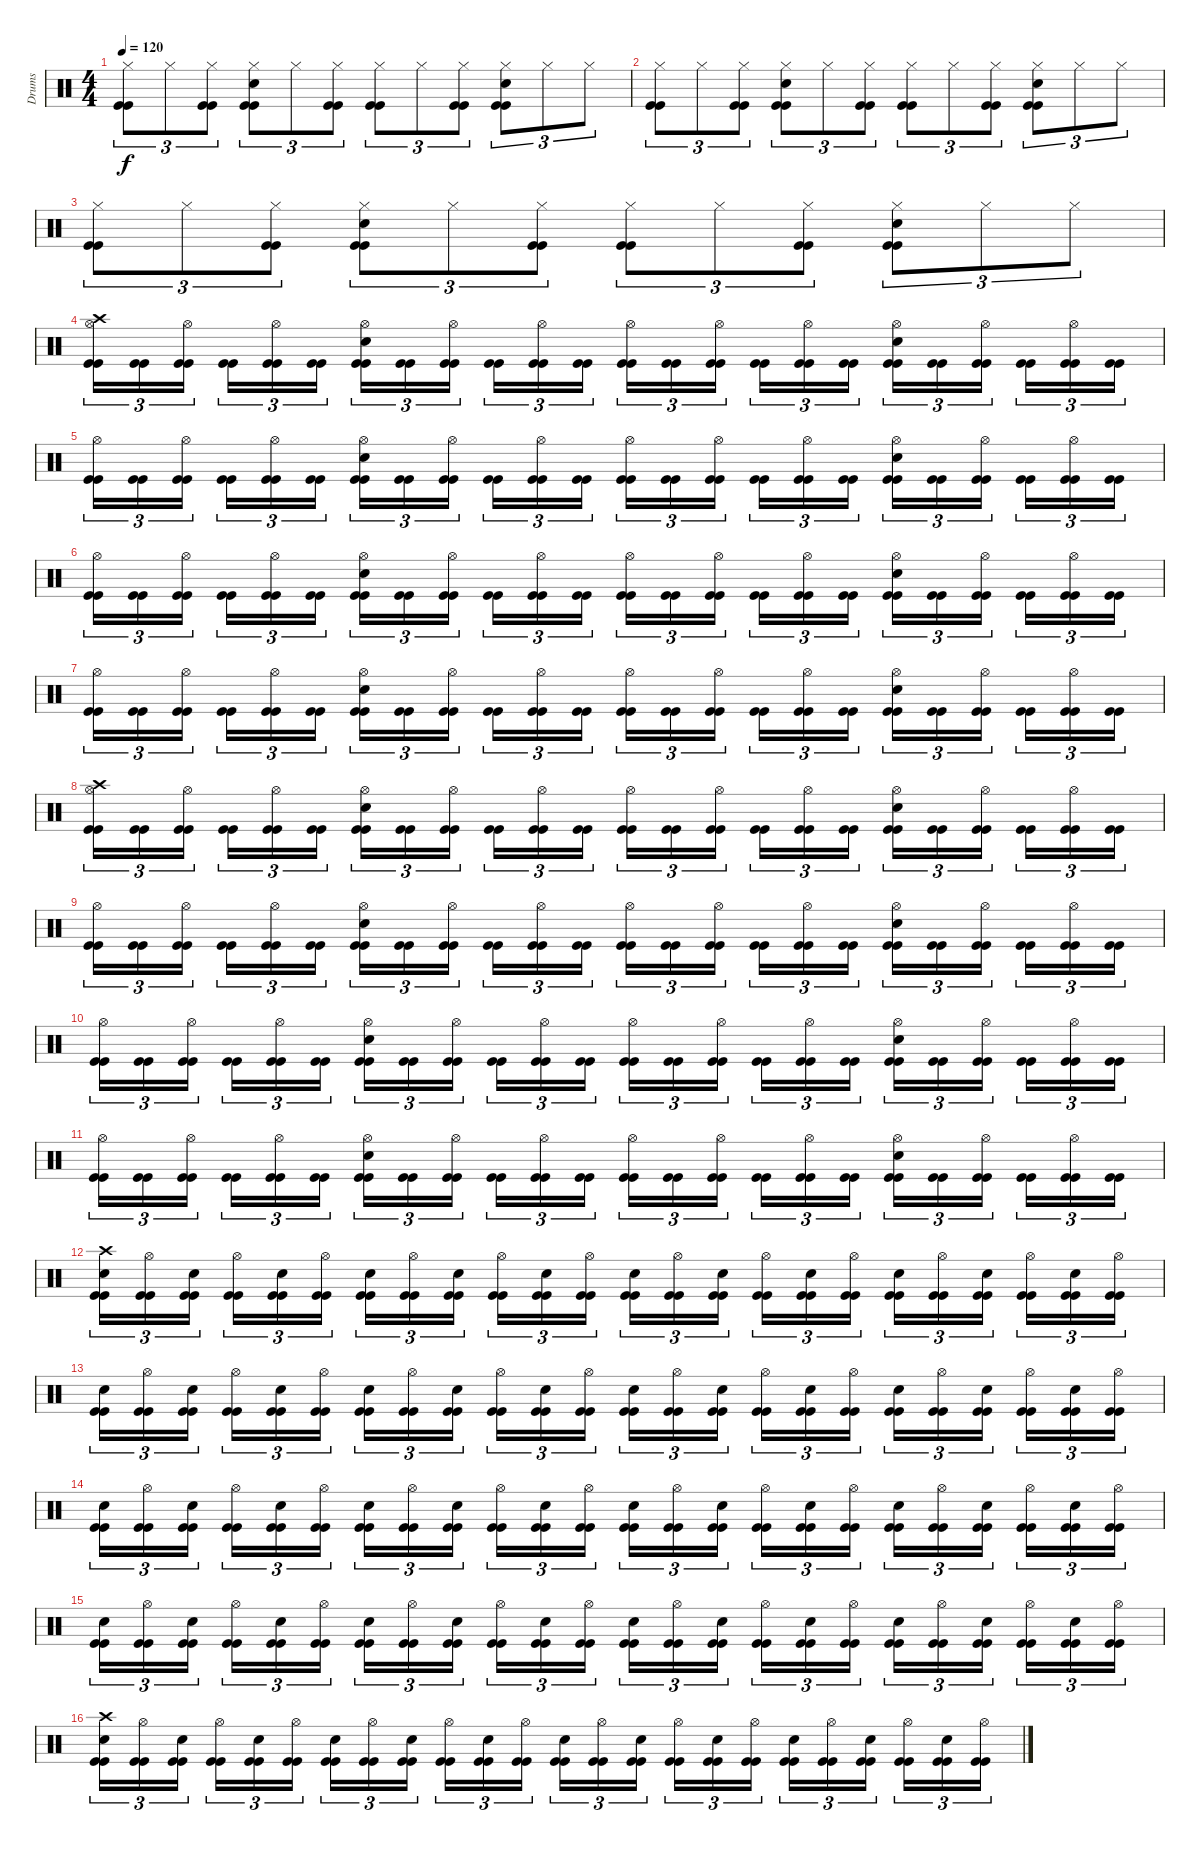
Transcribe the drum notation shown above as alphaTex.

\track ("Drums" "Drums") {instrument percussion}
\staff {score}
\articulation defaults
\ts (4 4)
\tempo 120
\clef neutral
\ks c
("Hi-Hat (closed)" "Kick (hit)" "Kick (hit)").8{tu (3 2) dy f} "Hi-Hat (closed)".8{tu (3 2)} ("Hi-Hat (closed)" "Kick (hit)" "Kick (hit)").8{tu (3 2)} ("Snare (hit) 2" "Hi-Hat (closed)" "Kick (hit)" "Kick (hit)").8{tu (3 2)} "Hi-Hat (closed)".8{tu (3 2)} ("Hi-Hat (closed)" "Kick (hit)" "Kick (hit)").8{tu (3 2)} ("Hi-Hat (closed)" "Kick (hit)" "Kick (hit)").8{tu (3 2)} "Hi-Hat (closed)".8{tu (3 2)} ("Hi-Hat (closed)" "Kick (hit)" "Kick (hit)").8{tu (3 2)} ("Snare (hit) 2" "Hi-Hat (closed)" "Kick (hit)" "Kick (hit)").8{tu (3 2)} "Hi-Hat (closed)".8{tu (3 2)} "Hi-Hat (closed)".8{tu (3 2)} |
("Hi-Hat (closed)" "Kick (hit)" "Kick (hit)").8{tu (3 2)} "Hi-Hat (closed)".8{tu (3 2)} ("Hi-Hat (closed)" "Kick (hit)" "Kick (hit)").8{tu (3 2)} ("Snare (hit) 2" "Hi-Hat (closed)" "Kick (hit)" "Kick (hit)").8{tu (3 2)} "Hi-Hat (closed)".8{tu (3 2)} ("Hi-Hat (closed)" "Kick (hit)" "Kick (hit)").8{tu (3 2)} ("Hi-Hat (closed)" "Kick (hit)" "Kick (hit)").8{tu (3 2)} "Hi-Hat (closed)".8{tu (3 2)} ("Hi-Hat (closed)" "Kick (hit)" "Kick (hit)").8{tu (3 2)} ("Snare (hit) 2" "Hi-Hat (closed)" "Kick (hit)" "Kick (hit)").8{tu (3 2)} "Hi-Hat (closed)".8{tu (3 2)} "Hi-Hat (closed)".8{tu (3 2)} |
("Hi-Hat (closed)" "Kick (hit)" "Kick (hit)").8{tu (3 2)} "Hi-Hat (closed)".8{tu (3 2)} ("Hi-Hat (closed)" "Kick (hit)" "Kick (hit)").8{tu (3 2)} ("Snare (hit) 2" "Hi-Hat (closed)" "Kick (hit)" "Kick (hit)").8{tu (3 2)} "Hi-Hat (closed)".8{tu (3 2)} ("Hi-Hat (closed)" "Kick (hit)" "Kick (hit)").8{tu (3 2)} ("Hi-Hat (closed)" "Kick (hit)" "Kick (hit)").8{tu (3 2)} "Hi-Hat (closed)".8{tu (3 2)} ("Hi-Hat (closed)" "Kick (hit)" "Kick (hit)").8{tu (3 2)} ("Snare (hit) 2" "Hi-Hat (closed)" "Kick (hit)" "Kick (hit)").8{tu (3 2)} "Hi-Hat (closed)".8{tu (3 2)} "Hi-Hat (closed)".8{tu (3 2)} |
("Crash high (hit)" "Hi-Hat (open)" "Kick (hit)" "Kick (hit)").16{tu (3 2)} ("Kick (hit)" "Kick (hit)").16{tu (3 2)} ("Hi-Hat (open)" "Kick (hit)" "Kick (hit)").16{tu (3 2)} ("Kick (hit)" "Kick (hit)").16{tu (3 2)} ("Hi-Hat (open)" "Kick (hit)" "Kick (hit)").16{tu (3 2)} ("Kick (hit)" "Kick (hit)").16{tu (3 2)} ("Snare (hit) 2" "Hi-Hat (open)" "Kick (hit)" "Kick (hit)").16{tu (3 2)} ("Kick (hit)" "Kick (hit)").16{tu (3 2)} ("Hi-Hat (open)" "Kick (hit)" "Kick (hit)").16{tu (3 2)} ("Kick (hit)" "Kick (hit)").16{tu (3 2)} ("Hi-Hat (open)" "Kick (hit)" "Kick (hit)").16{tu (3 2)} ("Kick (hit)" "Kick (hit)").16{tu (3 2)} ("Hi-Hat (open)" "Kick (hit)" "Kick (hit)").16{tu (3 2)} ("Kick (hit)" "Kick (hit)").16{tu (3 2)} ("Hi-Hat (open)" "Kick (hit)" "Kick (hit)").16{tu (3 2)} ("Kick (hit)" "Kick (hit)").16{tu (3 2)} ("Hi-Hat (open)" "Kick (hit)" "Kick (hit)").16{tu (3 2)} ("Kick (hit)" "Kick (hit)").16{tu (3 2)} ("Snare (hit) 2" "Hi-Hat (open)" "Kick (hit)" "Kick (hit)").16{tu (3 2)} ("Kick (hit)" "Kick (hit)").16{tu (3 2)} ("Hi-Hat (open)" "Kick (hit)" "Kick (hit)").16{tu (3 2)} ("Kick (hit)" "Kick (hit)").16{tu (3 2)} ("Hi-Hat (open)" "Kick (hit)" "Kick (hit)").16{tu (3 2)} ("Kick (hit)" "Kick (hit)").16{tu (3 2)} |
("Hi-Hat (open)" "Kick (hit)" "Kick (hit)").16{tu (3 2)} ("Kick (hit)" "Kick (hit)").16{tu (3 2)} ("Hi-Hat (open)" "Kick (hit)" "Kick (hit)").16{tu (3 2)} ("Kick (hit)" "Kick (hit)").16{tu (3 2)} ("Hi-Hat (open)" "Kick (hit)" "Kick (hit)").16{tu (3 2)} ("Kick (hit)" "Kick (hit)").16{tu (3 2)} ("Snare (hit) 2" "Hi-Hat (open)" "Kick (hit)" "Kick (hit)").16{tu (3 2)} ("Kick (hit)" "Kick (hit)").16{tu (3 2)} ("Hi-Hat (open)" "Kick (hit)" "Kick (hit)").16{tu (3 2)} ("Kick (hit)" "Kick (hit)").16{tu (3 2)} ("Hi-Hat (open)" "Kick (hit)" "Kick (hit)").16{tu (3 2)} ("Kick (hit)" "Kick (hit)").16{tu (3 2)} ("Hi-Hat (open)" "Kick (hit)" "Kick (hit)").16{tu (3 2)} ("Kick (hit)" "Kick (hit)").16{tu (3 2)} ("Hi-Hat (open)" "Kick (hit)" "Kick (hit)").16{tu (3 2)} ("Kick (hit)" "Kick (hit)").16{tu (3 2)} ("Hi-Hat (open)" "Kick (hit)" "Kick (hit)").16{tu (3 2)} ("Kick (hit)" "Kick (hit)").16{tu (3 2)} ("Snare (hit) 2" "Hi-Hat (open)" "Kick (hit)" "Kick (hit)").16{tu (3 2)} ("Kick (hit)" "Kick (hit)").16{tu (3 2)} ("Hi-Hat (open)" "Kick (hit)" "Kick (hit)").16{tu (3 2)} ("Kick (hit)" "Kick (hit)").16{tu (3 2)} ("Hi-Hat (open)" "Kick (hit)" "Kick (hit)").16{tu (3 2)} ("Kick (hit)" "Kick (hit)").16{tu (3 2)} |
("Hi-Hat (open)" "Kick (hit)" "Kick (hit)").16{tu (3 2)} ("Kick (hit)" "Kick (hit)").16{tu (3 2)} ("Hi-Hat (open)" "Kick (hit)" "Kick (hit)").16{tu (3 2)} ("Kick (hit)" "Kick (hit)").16{tu (3 2)} ("Hi-Hat (open)" "Kick (hit)" "Kick (hit)").16{tu (3 2)} ("Kick (hit)" "Kick (hit)").16{tu (3 2)} ("Snare (hit) 2" "Hi-Hat (open)" "Kick (hit)" "Kick (hit)").16{tu (3 2)} ("Kick (hit)" "Kick (hit)").16{tu (3 2)} ("Hi-Hat (open)" "Kick (hit)" "Kick (hit)").16{tu (3 2)} ("Kick (hit)" "Kick (hit)").16{tu (3 2)} ("Hi-Hat (open)" "Kick (hit)" "Kick (hit)").16{tu (3 2)} ("Kick (hit)" "Kick (hit)").16{tu (3 2)} ("Hi-Hat (open)" "Kick (hit)" "Kick (hit)").16{tu (3 2)} ("Kick (hit)" "Kick (hit)").16{tu (3 2)} ("Hi-Hat (open)" "Kick (hit)" "Kick (hit)").16{tu (3 2)} ("Kick (hit)" "Kick (hit)").16{tu (3 2)} ("Hi-Hat (open)" "Kick (hit)" "Kick (hit)").16{tu (3 2)} ("Kick (hit)" "Kick (hit)").16{tu (3 2)} ("Snare (hit) 2" "Hi-Hat (open)" "Kick (hit)" "Kick (hit)").16{tu (3 2)} ("Kick (hit)" "Kick (hit)").16{tu (3 2)} ("Hi-Hat (open)" "Kick (hit)" "Kick (hit)").16{tu (3 2)} ("Kick (hit)" "Kick (hit)").16{tu (3 2)} ("Hi-Hat (open)" "Kick (hit)" "Kick (hit)").16{tu (3 2)} ("Kick (hit)" "Kick (hit)").16{tu (3 2)} |
("Hi-Hat (open)" "Kick (hit)" "Kick (hit)").16{tu (3 2)} ("Kick (hit)" "Kick (hit)").16{tu (3 2)} ("Hi-Hat (open)" "Kick (hit)" "Kick (hit)").16{tu (3 2)} ("Kick (hit)" "Kick (hit)").16{tu (3 2)} ("Hi-Hat (open)" "Kick (hit)" "Kick (hit)").16{tu (3 2)} ("Kick (hit)" "Kick (hit)").16{tu (3 2)} ("Snare (hit) 2" "Hi-Hat (open)" "Kick (hit)" "Kick (hit)").16{tu (3 2)} ("Kick (hit)" "Kick (hit)").16{tu (3 2)} ("Hi-Hat (open)" "Kick (hit)" "Kick (hit)").16{tu (3 2)} ("Kick (hit)" "Kick (hit)").16{tu (3 2)} ("Hi-Hat (open)" "Kick (hit)" "Kick (hit)").16{tu (3 2)} ("Kick (hit)" "Kick (hit)").16{tu (3 2)} ("Hi-Hat (open)" "Kick (hit)" "Kick (hit)").16{tu (3 2)} ("Kick (hit)" "Kick (hit)").16{tu (3 2)} ("Hi-Hat (open)" "Kick (hit)" "Kick (hit)").16{tu (3 2)} ("Kick (hit)" "Kick (hit)").16{tu (3 2)} ("Hi-Hat (open)" "Kick (hit)" "Kick (hit)").16{tu (3 2)} ("Kick (hit)" "Kick (hit)").16{tu (3 2)} ("Snare (hit) 2" "Hi-Hat (open)" "Kick (hit)" "Kick (hit)").16{tu (3 2)} ("Kick (hit)" "Kick (hit)").16{tu (3 2)} ("Hi-Hat (open)" "Kick (hit)" "Kick (hit)").16{tu (3 2)} ("Kick (hit)" "Kick (hit)").16{tu (3 2)} ("Hi-Hat (open)" "Kick (hit)" "Kick (hit)").16{tu (3 2)} ("Kick (hit)" "Kick (hit)").16{tu (3 2)} |
("Crash high (hit)" "Hi-Hat (open)" "Kick (hit)" "Kick (hit)").16{tu (3 2)} ("Kick (hit)" "Kick (hit)").16{tu (3 2)} ("Hi-Hat (open)" "Kick (hit)" "Kick (hit)").16{tu (3 2)} ("Kick (hit)" "Kick (hit)").16{tu (3 2)} ("Hi-Hat (open)" "Kick (hit)" "Kick (hit)").16{tu (3 2)} ("Kick (hit)" "Kick (hit)").16{tu (3 2)} ("Snare (hit) 2" "Hi-Hat (open)" "Kick (hit)" "Kick (hit)").16{tu (3 2)} ("Kick (hit)" "Kick (hit)").16{tu (3 2)} ("Hi-Hat (open)" "Kick (hit)" "Kick (hit)").16{tu (3 2)} ("Kick (hit)" "Kick (hit)").16{tu (3 2)} ("Hi-Hat (open)" "Kick (hit)" "Kick (hit)").16{tu (3 2)} ("Kick (hit)" "Kick (hit)").16{tu (3 2)} ("Hi-Hat (open)" "Kick (hit)" "Kick (hit)").16{tu (3 2)} ("Kick (hit)" "Kick (hit)").16{tu (3 2)} ("Hi-Hat (open)" "Kick (hit)" "Kick (hit)").16{tu (3 2)} ("Kick (hit)" "Kick (hit)").16{tu (3 2)} ("Hi-Hat (open)" "Kick (hit)" "Kick (hit)").16{tu (3 2)} ("Kick (hit)" "Kick (hit)").16{tu (3 2)} ("Snare (hit) 2" "Hi-Hat (open)" "Kick (hit)" "Kick (hit)").16{tu (3 2)} ("Kick (hit)" "Kick (hit)").16{tu (3 2)} ("Hi-Hat (open)" "Kick (hit)" "Kick (hit)").16{tu (3 2)} ("Kick (hit)" "Kick (hit)").16{tu (3 2)} ("Hi-Hat (open)" "Kick (hit)" "Kick (hit)").16{tu (3 2)} ("Kick (hit)" "Kick (hit)").16{tu (3 2)} |
("Hi-Hat (open)" "Kick (hit)" "Kick (hit)").16{tu (3 2)} ("Kick (hit)" "Kick (hit)").16{tu (3 2)} ("Hi-Hat (open)" "Kick (hit)" "Kick (hit)").16{tu (3 2)} ("Kick (hit)" "Kick (hit)").16{tu (3 2)} ("Hi-Hat (open)" "Kick (hit)" "Kick (hit)").16{tu (3 2)} ("Kick (hit)" "Kick (hit)").16{tu (3 2)} ("Snare (hit) 2" "Hi-Hat (open)" "Kick (hit)" "Kick (hit)").16{tu (3 2)} ("Kick (hit)" "Kick (hit)").16{tu (3 2)} ("Hi-Hat (open)" "Kick (hit)" "Kick (hit)").16{tu (3 2)} ("Kick (hit)" "Kick (hit)").16{tu (3 2)} ("Hi-Hat (open)" "Kick (hit)" "Kick (hit)").16{tu (3 2)} ("Kick (hit)" "Kick (hit)").16{tu (3 2)} ("Hi-Hat (open)" "Kick (hit)" "Kick (hit)").16{tu (3 2)} ("Kick (hit)" "Kick (hit)").16{tu (3 2)} ("Hi-Hat (open)" "Kick (hit)" "Kick (hit)").16{tu (3 2)} ("Kick (hit)" "Kick (hit)").16{tu (3 2)} ("Hi-Hat (open)" "Kick (hit)" "Kick (hit)").16{tu (3 2)} ("Kick (hit)" "Kick (hit)").16{tu (3 2)} ("Snare (hit) 2" "Hi-Hat (open)" "Kick (hit)" "Kick (hit)").16{tu (3 2)} ("Kick (hit)" "Kick (hit)").16{tu (3 2)} ("Hi-Hat (open)" "Kick (hit)" "Kick (hit)").16{tu (3 2)} ("Kick (hit)" "Kick (hit)").16{tu (3 2)} ("Hi-Hat (open)" "Kick (hit)" "Kick (hit)").16{tu (3 2)} ("Kick (hit)" "Kick (hit)").16{tu (3 2)} |
("Hi-Hat (open)" "Kick (hit)" "Kick (hit)").16{tu (3 2)} ("Kick (hit)" "Kick (hit)").16{tu (3 2)} ("Hi-Hat (open)" "Kick (hit)" "Kick (hit)").16{tu (3 2)} ("Kick (hit)" "Kick (hit)").16{tu (3 2)} ("Hi-Hat (open)" "Kick (hit)" "Kick (hit)").16{tu (3 2)} ("Kick (hit)" "Kick (hit)").16{tu (3 2)} ("Snare (hit) 2" "Hi-Hat (open)" "Kick (hit)" "Kick (hit)").16{tu (3 2)} ("Kick (hit)" "Kick (hit)").16{tu (3 2)} ("Hi-Hat (open)" "Kick (hit)" "Kick (hit)").16{tu (3 2)} ("Kick (hit)" "Kick (hit)").16{tu (3 2)} ("Hi-Hat (open)" "Kick (hit)" "Kick (hit)").16{tu (3 2)} ("Kick (hit)" "Kick (hit)").16{tu (3 2)} ("Hi-Hat (open)" "Kick (hit)" "Kick (hit)").16{tu (3 2)} ("Kick (hit)" "Kick (hit)").16{tu (3 2)} ("Hi-Hat (open)" "Kick (hit)" "Kick (hit)").16{tu (3 2)} ("Kick (hit)" "Kick (hit)").16{tu (3 2)} ("Hi-Hat (open)" "Kick (hit)" "Kick (hit)").16{tu (3 2)} ("Kick (hit)" "Kick (hit)").16{tu (3 2)} ("Snare (hit) 2" "Hi-Hat (open)" "Kick (hit)" "Kick (hit)").16{tu (3 2)} ("Kick (hit)" "Kick (hit)").16{tu (3 2)} ("Hi-Hat (open)" "Kick (hit)" "Kick (hit)").16{tu (3 2)} ("Kick (hit)" "Kick (hit)").16{tu (3 2)} ("Hi-Hat (open)" "Kick (hit)" "Kick (hit)").16{tu (3 2)} ("Kick (hit)" "Kick (hit)").16{tu (3 2)} |
("Hi-Hat (open)" "Kick (hit)" "Kick (hit)").16{tu (3 2)} ("Kick (hit)" "Kick (hit)").16{tu (3 2)} ("Hi-Hat (open)" "Kick (hit)" "Kick (hit)").16{tu (3 2)} ("Kick (hit)" "Kick (hit)").16{tu (3 2)} ("Hi-Hat (open)" "Kick (hit)" "Kick (hit)").16{tu (3 2)} ("Kick (hit)" "Kick (hit)").16{tu (3 2)} ("Snare (hit) 2" "Hi-Hat (open)" "Kick (hit)" "Kick (hit)").16{tu (3 2)} ("Kick (hit)" "Kick (hit)").16{tu (3 2)} ("Hi-Hat (open)" "Kick (hit)" "Kick (hit)").16{tu (3 2)} ("Kick (hit)" "Kick (hit)").16{tu (3 2)} ("Hi-Hat (open)" "Kick (hit)" "Kick (hit)").16{tu (3 2)} ("Kick (hit)" "Kick (hit)").16{tu (3 2)} ("Hi-Hat (open)" "Kick (hit)" "Kick (hit)").16{tu (3 2)} ("Kick (hit)" "Kick (hit)").16{tu (3 2)} ("Hi-Hat (open)" "Kick (hit)" "Kick (hit)").16{tu (3 2)} ("Kick (hit)" "Kick (hit)").16{tu (3 2)} ("Hi-Hat (open)" "Kick (hit)" "Kick (hit)").16{tu (3 2)} ("Kick (hit)" "Kick (hit)").16{tu (3 2)} ("Snare (hit) 2" "Hi-Hat (open)" "Kick (hit)" "Kick (hit)").16{tu (3 2)} ("Kick (hit)" "Kick (hit)").16{tu (3 2)} ("Hi-Hat (open)" "Kick (hit)" "Kick (hit)").16{tu (3 2)} ("Kick (hit)" "Kick (hit)").16{tu (3 2)} ("Hi-Hat (open)" "Kick (hit)" "Kick (hit)").16{tu (3 2)} ("Kick (hit)" "Kick (hit)").16{tu (3 2)} |
("Crash high (hit)" "Snare (hit) 2" "Kick (hit)" "Kick (hit)").16{tu (3 2)} ("Hi-Hat (open)" "Kick (hit)" "Kick (hit)").16{tu (3 2)} ("Snare (hit) 2" "Kick (hit)" "Kick (hit)").16{tu (3 2)} ("Hi-Hat (open)" "Kick (hit)" "Kick (hit)").16{tu (3 2)} ("Snare (hit) 2" "Kick (hit)" "Kick (hit)").16{tu (3 2)} ("Hi-Hat (open)" "Kick (hit)" "Kick (hit)").16{tu (3 2)} ("Snare (hit) 2" "Kick (hit)" "Kick (hit)").16{tu (3 2)} ("Hi-Hat (open)" "Kick (hit)" "Kick (hit)").16{tu (3 2)} ("Snare (hit) 2" "Kick (hit)" "Kick (hit)").16{tu (3 2)} ("Hi-Hat (open)" "Kick (hit)" "Kick (hit)").16{tu (3 2)} ("Snare (hit) 2" "Kick (hit)" "Kick (hit)").16{tu (3 2)} ("Hi-Hat (open)" "Kick (hit)" "Kick (hit)").16{tu (3 2)} ("Snare (hit) 2" "Kick (hit)" "Kick (hit)").16{tu (3 2)} ("Hi-Hat (open)" "Kick (hit)" "Kick (hit)").16{tu (3 2)} ("Snare (hit) 2" "Kick (hit)" "Kick (hit)").16{tu (3 2)} ("Hi-Hat (open)" "Kick (hit)" "Kick (hit)").16{tu (3 2)} ("Snare (hit) 2" "Kick (hit)" "Kick (hit)").16{tu (3 2)} ("Hi-Hat (open)" "Kick (hit)" "Kick (hit)").16{tu (3 2)} ("Snare (hit) 2" "Kick (hit)" "Kick (hit)").16{tu (3 2)} ("Hi-Hat (open)" "Kick (hit)" "Kick (hit)").16{tu (3 2)} ("Snare (hit) 2" "Kick (hit)" "Kick (hit)").16{tu (3 2)} ("Hi-Hat (open)" "Kick (hit)" "Kick (hit)").16{tu (3 2)} ("Snare (hit) 2" "Kick (hit)" "Kick (hit)").16{tu (3 2)} ("Hi-Hat (open)" "Kick (hit)" "Kick (hit)").16{tu (3 2)} |
("Snare (hit) 2" "Kick (hit)" "Kick (hit)").16{tu (3 2)} ("Hi-Hat (open)" "Kick (hit)" "Kick (hit)").16{tu (3 2)} ("Snare (hit) 2" "Kick (hit)" "Kick (hit)").16{tu (3 2)} ("Hi-Hat (open)" "Kick (hit)" "Kick (hit)").16{tu (3 2)} ("Snare (hit) 2" "Kick (hit)" "Kick (hit)").16{tu (3 2)} ("Hi-Hat (open)" "Kick (hit)" "Kick (hit)").16{tu (3 2)} ("Snare (hit) 2" "Kick (hit)" "Kick (hit)").16{tu (3 2)} ("Hi-Hat (open)" "Kick (hit)" "Kick (hit)").16{tu (3 2)} ("Snare (hit) 2" "Kick (hit)" "Kick (hit)").16{tu (3 2)} ("Hi-Hat (open)" "Kick (hit)" "Kick (hit)").16{tu (3 2)} ("Snare (hit) 2" "Kick (hit)" "Kick (hit)").16{tu (3 2)} ("Hi-Hat (open)" "Kick (hit)" "Kick (hit)").16{tu (3 2)} ("Snare (hit) 2" "Kick (hit)" "Kick (hit)").16{tu (3 2)} ("Hi-Hat (open)" "Kick (hit)" "Kick (hit)").16{tu (3 2)} ("Snare (hit) 2" "Kick (hit)" "Kick (hit)").16{tu (3 2)} ("Hi-Hat (open)" "Kick (hit)" "Kick (hit)").16{tu (3 2)} ("Snare (hit) 2" "Kick (hit)" "Kick (hit)").16{tu (3 2)} ("Hi-Hat (open)" "Kick (hit)" "Kick (hit)").16{tu (3 2)} ("Snare (hit) 2" "Kick (hit)" "Kick (hit)").16{tu (3 2)} ("Hi-Hat (open)" "Kick (hit)" "Kick (hit)").16{tu (3 2)} ("Snare (hit) 2" "Kick (hit)" "Kick (hit)").16{tu (3 2)} ("Hi-Hat (open)" "Kick (hit)" "Kick (hit)").16{tu (3 2)} ("Snare (hit) 2" "Kick (hit)" "Kick (hit)").16{tu (3 2)} ("Hi-Hat (open)" "Kick (hit)" "Kick (hit)").16{tu (3 2)} |
("Snare (hit) 2" "Kick (hit)" "Kick (hit)").16{tu (3 2)} ("Hi-Hat (open)" "Kick (hit)" "Kick (hit)").16{tu (3 2)} ("Snare (hit) 2" "Kick (hit)" "Kick (hit)").16{tu (3 2)} ("Hi-Hat (open)" "Kick (hit)" "Kick (hit)").16{tu (3 2)} ("Snare (hit) 2" "Kick (hit)" "Kick (hit)").16{tu (3 2)} ("Hi-Hat (open)" "Kick (hit)" "Kick (hit)").16{tu (3 2)} ("Snare (hit) 2" "Kick (hit)" "Kick (hit)").16{tu (3 2)} ("Hi-Hat (open)" "Kick (hit)" "Kick (hit)").16{tu (3 2)} ("Snare (hit) 2" "Kick (hit)" "Kick (hit)").16{tu (3 2)} ("Hi-Hat (open)" "Kick (hit)" "Kick (hit)").16{tu (3 2)} ("Snare (hit) 2" "Kick (hit)" "Kick (hit)").16{tu (3 2)} ("Hi-Hat (open)" "Kick (hit)" "Kick (hit)").16{tu (3 2)} ("Snare (hit) 2" "Kick (hit)" "Kick (hit)").16{tu (3 2)} ("Hi-Hat (open)" "Kick (hit)" "Kick (hit)").16{tu (3 2)} ("Snare (hit) 2" "Kick (hit)" "Kick (hit)").16{tu (3 2)} ("Hi-Hat (open)" "Kick (hit)" "Kick (hit)").16{tu (3 2)} ("Snare (hit) 2" "Kick (hit)" "Kick (hit)").16{tu (3 2)} ("Hi-Hat (open)" "Kick (hit)" "Kick (hit)").16{tu (3 2)} ("Snare (hit) 2" "Kick (hit)" "Kick (hit)").16{tu (3 2)} ("Hi-Hat (open)" "Kick (hit)" "Kick (hit)").16{tu (3 2)} ("Snare (hit) 2" "Kick (hit)" "Kick (hit)").16{tu (3 2)} ("Hi-Hat (open)" "Kick (hit)" "Kick (hit)").16{tu (3 2)} ("Snare (hit) 2" "Kick (hit)" "Kick (hit)").16{tu (3 2)} ("Hi-Hat (open)" "Kick (hit)" "Kick (hit)").16{tu (3 2)} |
("Snare (hit) 2" "Kick (hit)" "Kick (hit)").16{tu (3 2)} ("Hi-Hat (open)" "Kick (hit)" "Kick (hit)").16{tu (3 2)} ("Snare (hit) 2" "Kick (hit)" "Kick (hit)").16{tu (3 2)} ("Hi-Hat (open)" "Kick (hit)" "Kick (hit)").16{tu (3 2)} ("Snare (hit) 2" "Kick (hit)" "Kick (hit)").16{tu (3 2)} ("Hi-Hat (open)" "Kick (hit)" "Kick (hit)").16{tu (3 2)} ("Snare (hit) 2" "Kick (hit)" "Kick (hit)").16{tu (3 2)} ("Hi-Hat (open)" "Kick (hit)" "Kick (hit)").16{tu (3 2)} ("Snare (hit) 2" "Kick (hit)" "Kick (hit)").16{tu (3 2)} ("Hi-Hat (open)" "Kick (hit)" "Kick (hit)").16{tu (3 2)} ("Snare (hit) 2" "Kick (hit)" "Kick (hit)").16{tu (3 2)} ("Hi-Hat (open)" "Kick (hit)" "Kick (hit)").16{tu (3 2)} ("Snare (hit) 2" "Kick (hit)" "Kick (hit)").16{tu (3 2)} ("Hi-Hat (open)" "Kick (hit)" "Kick (hit)").16{tu (3 2)} ("Snare (hit) 2" "Kick (hit)" "Kick (hit)").16{tu (3 2)} ("Hi-Hat (open)" "Kick (hit)" "Kick (hit)").16{tu (3 2)} ("Snare (hit) 2" "Kick (hit)" "Kick (hit)").16{tu (3 2)} ("Hi-Hat (open)" "Kick (hit)" "Kick (hit)").16{tu (3 2)} ("Snare (hit) 2" "Kick (hit)" "Kick (hit)").16{tu (3 2)} ("Hi-Hat (open)" "Kick (hit)" "Kick (hit)").16{tu (3 2)} ("Snare (hit) 2" "Kick (hit)" "Kick (hit)").16{tu (3 2)} ("Hi-Hat (open)" "Kick (hit)" "Kick (hit)").16{tu (3 2)} ("Snare (hit) 2" "Kick (hit)" "Kick (hit)").16{tu (3 2)} ("Hi-Hat (open)" "Kick (hit)" "Kick (hit)").16{tu (3 2)} |
("Crash high (hit)" "Snare (hit) 2" "Kick (hit)" "Kick (hit)").16{tu (3 2)} ("Hi-Hat (open)" "Kick (hit)" "Kick (hit)").16{tu (3 2)} ("Snare (hit) 2" "Kick (hit)" "Kick (hit)").16{tu (3 2)} ("Hi-Hat (open)" "Kick (hit)" "Kick (hit)").16{tu (3 2)} ("Snare (hit) 2" "Kick (hit)" "Kick (hit)").16{tu (3 2)} ("Hi-Hat (open)" "Kick (hit)" "Kick (hit)").16{tu (3 2)} ("Snare (hit) 2" "Kick (hit)" "Kick (hit)").16{tu (3 2)} ("Hi-Hat (open)" "Kick (hit)" "Kick (hit)").16{tu (3 2)} ("Snare (hit) 2" "Kick (hit)" "Kick (hit)").16{tu (3 2)} ("Hi-Hat (open)" "Kick (hit)" "Kick (hit)").16{tu (3 2)} ("Snare (hit) 2" "Kick (hit)" "Kick (hit)").16{tu (3 2)} ("Hi-Hat (open)" "Kick (hit)" "Kick (hit)").16{tu (3 2)} ("Snare (hit) 2" "Kick (hit)" "Kick (hit)").16{tu (3 2)} ("Hi-Hat (open)" "Kick (hit)" "Kick (hit)").16{tu (3 2)} ("Snare (hit) 2" "Kick (hit)" "Kick (hit)").16{tu (3 2)} ("Hi-Hat (open)" "Kick (hit)" "Kick (hit)").16{tu (3 2)} ("Snare (hit) 2" "Kick (hit)" "Kick (hit)").16{tu (3 2)} ("Hi-Hat (open)" "Kick (hit)" "Kick (hit)").16{tu (3 2)} ("Snare (hit) 2" "Kick (hit)" "Kick (hit)").16{tu (3 2)} ("Hi-Hat (open)" "Kick (hit)" "Kick (hit)").16{tu (3 2)} ("Snare (hit) 2" "Kick (hit)" "Kick (hit)").16{tu (3 2)} ("Hi-Hat (open)" "Kick (hit)" "Kick (hit)").16{tu (3 2)} ("Snare (hit) 2" "Kick (hit)" "Kick (hit)").16{tu (3 2)} ("Hi-Hat (open)" "Kick (hit)" "Kick (hit)").16{tu (3 2)}
